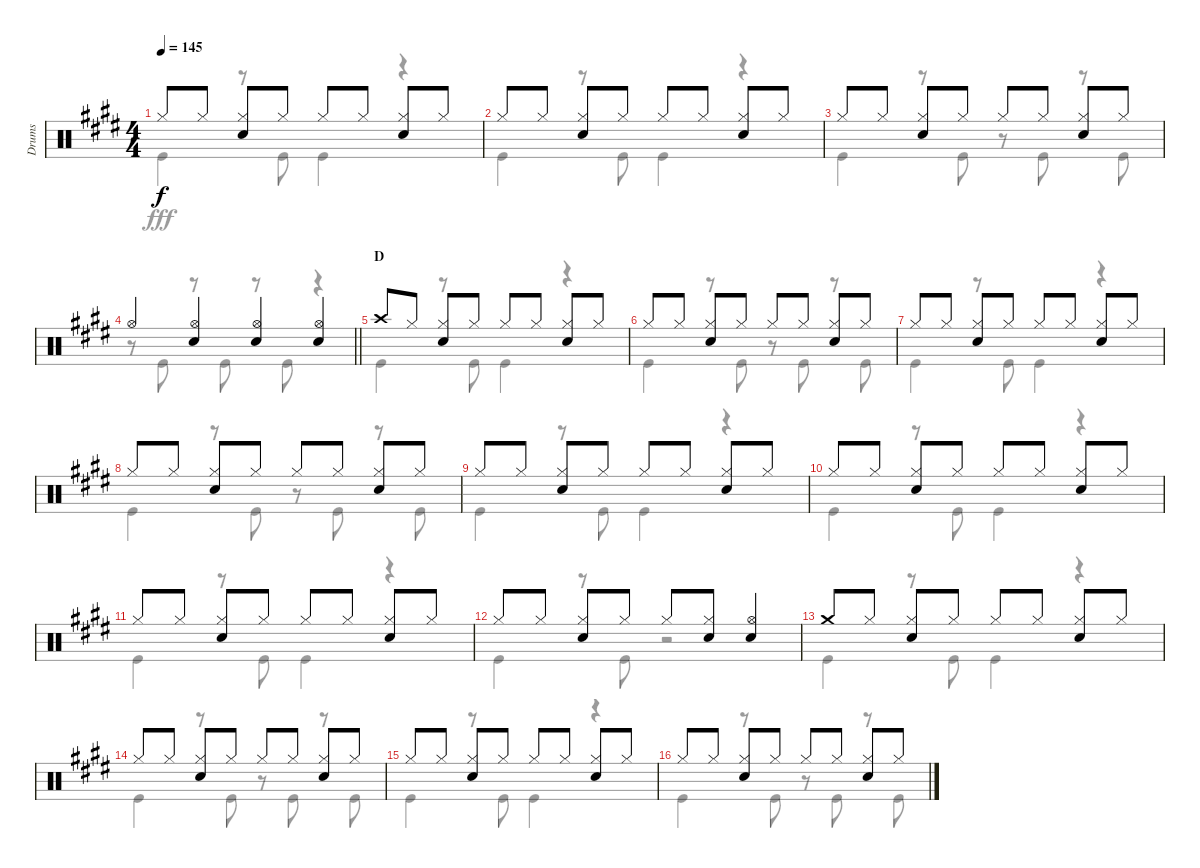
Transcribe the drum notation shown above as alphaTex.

\track ("Drums" "Drums") {instrument percussion}
\staff {score}
\articulation defaults
\voice
\ts (4 4)
\tempo 145
\clef neutral
\ks e "Hi-Hat (closed)".8{dy f} "Hi-Hat (closed)".8
("Hi-Hat (closed)" "Snare (hit) 2").8 "Hi-Hat (closed)".8 "Hi-Hat (closed)".8 "Hi-Hat (closed)".8 ("Hi-Hat (closed)" "Snare (hit) 2").8 "Hi-Hat (closed)".8 |
"Hi-Hat (closed)".8 "Hi-Hat (closed)".8 ("Hi-Hat (closed)" "Snare (hit) 2").8 "Hi-Hat (closed)".8 "Hi-Hat (closed)".8 "Hi-Hat (closed)".8 ("Hi-Hat (closed)" "Snare (hit) 2").8 "Hi-Hat (closed)".8 |
"Hi-Hat (closed)".8 "Hi-Hat (closed)".8 ("Hi-Hat (closed)" "Snare (hit) 2").8 "Hi-Hat (closed)".8 "Hi-Hat (closed)".8 "Hi-Hat (closed)".8 ("Hi-Hat (closed)" "Snare (hit) 2").8 "Hi-Hat (closed)".8 |
\barLineRight lightlight "Hi-Hat (open)".4
("Hi-Hat (open)" "Snare (hit) 2").4 ("Hi-Hat (open)" "Snare (hit) 2").4 ("Hi-Hat (open)" "Snare (hit) 2").4 |
\section ("" "D")
"Crash high (hit)".8 "Hi-Hat (closed)".8 ("Hi-Hat (closed)" "Snare (hit) 2").8 "Hi-Hat (closed)".8 "Hi-Hat (closed)".8 "Hi-Hat (closed)".8 ("Hi-Hat (closed)" "Snare (hit) 2").8 "Hi-Hat (closed)".8 |
"Hi-Hat (closed)".8 "Hi-Hat (closed)".8 ("Hi-Hat (closed)" "Snare (hit) 2").8 "Hi-Hat (closed)".8 "Hi-Hat (closed)".8 "Hi-Hat (closed)".8 ("Hi-Hat (closed)" "Snare (hit) 2").8 "Hi-Hat (closed)".8 |
"Hi-Hat (closed)".8 "Hi-Hat (closed)".8 ("Hi-Hat (closed)" "Snare (hit) 2").8 "Hi-Hat (closed)".8 "Hi-Hat (closed)".8 "Hi-Hat (closed)".8 ("Hi-Hat (closed)" "Snare (hit) 2").8 "Hi-Hat (closed)".8 |
"Hi-Hat (closed)".8 "Hi-Hat (closed)".8 ("Hi-Hat (closed)" "Snare (hit) 2").8 "Hi-Hat (closed)".8 "Hi-Hat (closed)".8 "Hi-Hat (closed)".8 ("Hi-Hat (closed)" "Snare (hit) 2").8 "Hi-Hat (closed)".8 |
"Hi-Hat (closed)".8 "Hi-Hat (closed)".8 ("Hi-Hat (closed)" "Snare (hit) 2").8 "Hi-Hat (closed)".8 "Hi-Hat (closed)".8 "Hi-Hat (closed)".8 ("Hi-Hat (closed)" "Snare (hit) 2").8 "Hi-Hat (closed)".8 |
"Hi-Hat (closed)".8 "Hi-Hat (closed)".8 ("Hi-Hat (closed)" "Snare (hit) 2").8 "Hi-Hat (closed)".8 "Hi-Hat (closed)".8 "Hi-Hat (closed)".8 ("Hi-Hat (closed)" "Snare (hit) 2").8 "Hi-Hat (closed)".8 |
"Hi-Hat (closed)".8 "Hi-Hat (closed)".8 ("Hi-Hat (closed)" "Snare (hit) 2").8 "Hi-Hat (closed)".8 "Hi-Hat (closed)".8 "Hi-Hat (closed)".8 ("Hi-Hat (closed)" "Snare (hit) 2").8 "Hi-Hat (closed)".8 |
"Hi-Hat (closed)".8 "Hi-Hat (closed)".8 ("Hi-Hat (closed)" "Snare (hit) 2").8 "Hi-Hat (closed)".8 "Hi-Hat (closed)".8 ("Hi-Hat (closed)" "Snare (hit) 2").8 ("Hi-Hat (open)" "Snare (hit) 2").4 |
"Crash medium (hit)".8 "Hi-Hat (closed)".8 ("Hi-Hat (closed)" "Snare (hit) 2").8 "Hi-Hat (closed)".8 "Hi-Hat (closed)".8 "Hi-Hat (closed)".8 ("Hi-Hat (closed)" "Snare (hit) 2").8 "Hi-Hat (closed)".8 |
"Hi-Hat (closed)".8 "Hi-Hat (closed)".8 ("Hi-Hat (closed)" "Snare (hit) 2").8 "Hi-Hat (closed)".8 "Hi-Hat (closed)".8 "Hi-Hat (closed)".8 ("Hi-Hat (closed)" "Snare (hit) 2").8 "Hi-Hat (closed)".8 |
"Hi-Hat (closed)".8 "Hi-Hat (closed)".8 ("Hi-Hat (closed)" "Snare (hit) 2").8 "Hi-Hat (closed)".8 "Hi-Hat (closed)".8 "Hi-Hat (closed)".8 ("Hi-Hat (closed)" "Snare (hit) 2").8 "Hi-Hat (closed)".8 |
"Hi-Hat (closed)".8 "Hi-Hat (closed)".8 ("Hi-Hat (closed)" "Snare (hit) 2").8 "Hi-Hat (closed)".8 "Hi-Hat (closed)".8 "Hi-Hat (closed)".8 ("Hi-Hat (closed)" "Snare (hit) 2").8 "Hi-Hat (closed)".8
\voice
\clef neutral
\ottava regular
\simile none
\ks e "Kick (hit)".4{dy fff}
r.8 "Kick (hit)".8 "Kick (hit)".4 r.4 |
"Kick (hit)".4 r.8 "Kick (hit)".8 "Kick (hit)".4 r.4 |
"Kick (hit)".4 r.8 "Kick (hit)".8 r.8 "Kick (hit)".8 r.8 "Kick (hit)".8 |
\barLineRight lightlight
r.8 "Kick (hit)".8 r.8 "Kick (hit)".8 r.8 "Kick (hit)".8 r.4 |
"Kick (hit)".4 r.8 "Kick (hit)".8 "Kick (hit)".4 r.4 |
"Kick (hit)".4 r.8 "Kick (hit)".8 r.8 "Kick (hit)".8 r.8 "Kick (hit)".8 |
"Kick (hit)".4 r.8 "Kick (hit)".8 "Kick (hit)".4 r.4 |
"Kick (hit)".4 r.8 "Kick (hit)".8 r.8 "Kick (hit)".8 r.8 "Kick (hit)".8 |
"Kick (hit)".4 r.8 "Kick (hit)".8 "Kick (hit)".4 r.4 |
"Kick (hit)".4 r.8 "Kick (hit)".8 "Kick (hit)".4 r.4 |
"Kick (hit)".4 r.8 "Kick (hit)".8 "Kick (hit)".4 r.4 |
"Kick (hit)".4 r.8 "Kick (hit)".8 r.2 |
"Kick (hit)".4 r.8 "Kick (hit)".8 "Kick (hit)".4 r.4 |
"Kick (hit)".4 r.8 "Kick (hit)".8 r.8 "Kick (hit)".8 r.8 "Kick (hit)".8 |
"Kick (hit)".4 r.8 "Kick (hit)".8 "Kick (hit)".4 r.4 |
"Kick (hit)".4 r.8 "Kick (hit)".8 r.8 "Kick (hit)".8 r.8 "Kick (hit)".8
